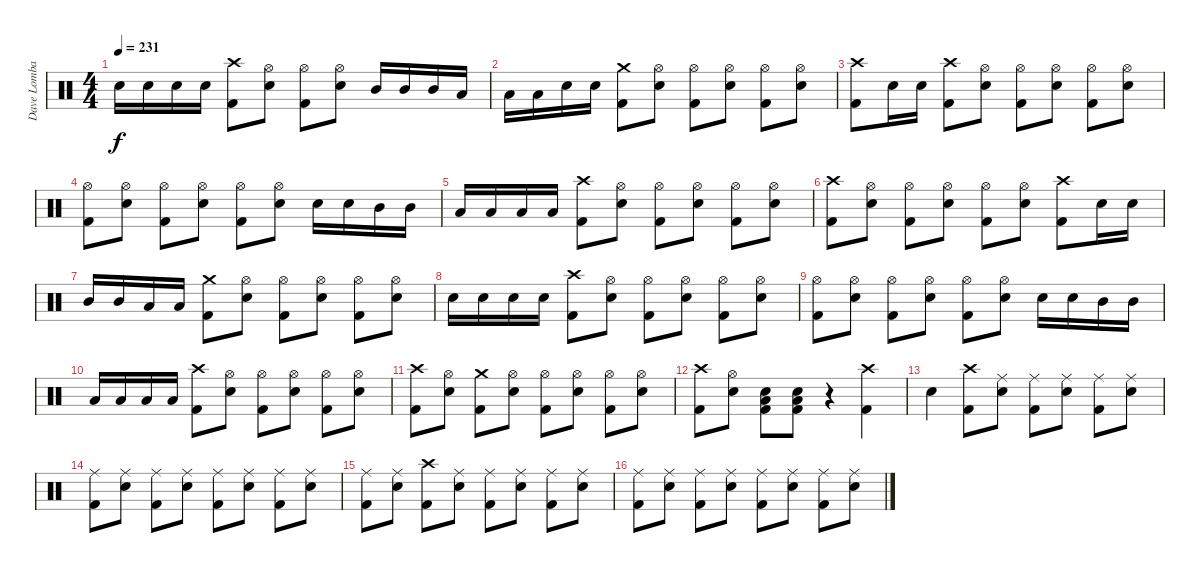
\track ("Dave Lombardo" "Dave Lomba") {instrument percussion}
\staff {score}
\articulation defaults
\ts (4 4)
\tempo 231
\clef neutral
\ks c "Electric Snare (hit)".16{dy f} "Electric Snare (hit)".16 "Electric Snare (hit)".16 "Electric Snare (hit)".16
("Crash high (hit)" "Kick (hit) 2").8 ("Hi-Hat (open)" "Electric Snare (hit)").8 ("Hi-Hat (open)" "Kick (hit) 2").8 ("Hi-Hat (open)" "Electric Snare (hit)").8 "Mid Tom (hit)".16 "Mid Tom (hit)".16 "Mid Tom (hit)".16 "Low Tom (hit)".16 |
"Low Tom (hit)".16 "Low Tom (hit)".16 "Electric Snare (hit)".16 "Electric Snare (hit)".16 ("Crash medium (hit)" "Kick (hit) 2").8 ("Hi-Hat (open)" "Electric Snare (hit)").8 ("Hi-Hat (open)" "Kick (hit) 2").8 ("Hi-Hat (open)" "Electric Snare (hit)").8 ("Hi-Hat (open)" "Kick (hit) 2").8 ("Hi-Hat (open)" "Electric Snare (hit)").8 |
("Crash high (hit)" "Kick (hit) 2").8 "Electric Snare (hit)".16 "Electric Snare (hit)".16 ("Crash high (hit)" "Kick (hit) 2").8 ("Hi-Hat (open)" "Electric Snare (hit)").8 ("Hi-Hat (open)" "Kick (hit) 2").8 ("Hi-Hat (open)" "Electric Snare (hit)").8 ("Hi-Hat (open)" "Kick (hit) 2").8 ("Hi-Hat (open)" "Electric Snare (hit)").8 |
("Hi-Hat (open)" "Kick (hit) 2").8 ("Hi-Hat (open)" "Electric Snare (hit)").8 ("Hi-Hat (open)" "Kick (hit) 2").8 ("Hi-Hat (open)" "Electric Snare (hit)").8 ("Hi-Hat (open)" "Kick (hit) 2").8 ("Hi-Hat (open)" "Electric Snare (hit)").8 "Electric Snare (hit)".16 "Electric Snare (hit)".16 "Mid Tom (hit)".16 "Mid Tom (hit)".16 |
"Low Tom (hit)".16 "Low Tom (hit)".16 "Low Tom (hit)".16 "Low Tom (hit)".16 ("Crash high (hit)" "Kick (hit) 2").8 ("Hi-Hat (open)" "Electric Snare (hit)").8 ("Hi-Hat (open)" "Kick (hit) 2").8 ("Hi-Hat (open)" "Electric Snare (hit)").8 ("Hi-Hat (open)" "Kick (hit) 2").8 ("Hi-Hat (open)" "Electric Snare (hit)").8 |
("Crash high (hit)" "Kick (hit) 2").8 ("Hi-Hat (open)" "Electric Snare (hit)").8 ("Hi-Hat (open)" "Kick (hit) 2").8 ("Hi-Hat (open)" "Electric Snare (hit)").8 ("Hi-Hat (open)" "Kick (hit) 2").8 ("Hi-Hat (open)" "Electric Snare (hit)").8 ("Crash high (hit)" "Kick (hit) 2").8 "Electric Snare (hit)".16 "Electric Snare (hit)".16 |
"Mid Tom (hit)".16 "Mid Tom (hit)".16 "Low Tom (hit)".16 "Low Tom (hit)".16 ("Crash medium (hit)" "Kick (hit) 2").8 ("Hi-Hat (open)" "Electric Snare (hit)").8 ("Hi-Hat (open)" "Kick (hit) 2").8 ("Hi-Hat (open)" "Electric Snare (hit)").8 ("Hi-Hat (open)" "Kick (hit) 2").8 ("Hi-Hat (open)" "Electric Snare (hit)").8 |
"Electric Snare (hit)".16 "Electric Snare (hit)".16 "Electric Snare (hit)".16 "Electric Snare (hit)".16 ("Crash high (hit)" "Kick (hit) 2").8 ("Hi-Hat (open)" "Electric Snare (hit)").8 ("Hi-Hat (open)" "Kick (hit) 2").8 ("Hi-Hat (open)" "Electric Snare (hit)").8 ("Hi-Hat (open)" "Kick (hit) 2").8 ("Hi-Hat (open)" "Electric Snare (hit)").8 |
("Hi-Hat (open)" "Kick (hit) 2").8 ("Hi-Hat (open)" "Electric Snare (hit)").8 ("Hi-Hat (open)" "Kick (hit) 2").8 ("Hi-Hat (open)" "Electric Snare (hit)").8 ("Hi-Hat (open)" "Kick (hit) 2").8 ("Hi-Hat (open)" "Electric Snare (hit)").8 "Electric Snare (hit)".16 "Electric Snare (hit)".16 "Mid Tom (hit)".16 "Mid Tom (hit)".16 |
"Low Tom (hit)".16 "Low Tom (hit)".16 "Low Tom (hit)".16 "Low Tom (hit)".16 ("Crash high (hit)" "Kick (hit) 2").8 ("Hi-Hat (open)" "Electric Snare (hit)").8 ("Hi-Hat (open)" "Kick (hit) 2").8 ("Hi-Hat (open)" "Electric Snare (hit)").8 ("Hi-Hat (open)" "Kick (hit) 2").8 ("Hi-Hat (open)" "Electric Snare (hit)").8 |
("Crash high (hit)" "Kick (hit) 2").8 ("Hi-Hat (open)" "Electric Snare (hit)").8 ("Crash medium (hit)" "Kick (hit) 2").8 ("Hi-Hat (open)" "Electric Snare (hit)").8 ("Hi-Hat (open)" "Kick (hit) 2").8 ("Hi-Hat (open)" "Electric Snare (hit)").8 ("Hi-Hat (open)" "Kick (hit) 2").8 ("Hi-Hat (open)" "Electric Snare (hit)").8 |
("Crash high (hit)" "Kick (hit) 2").8 ("Hi-Hat (open)" "Electric Snare (hit)").8 ("Kick (hit) 2" "Low Floor Tom (hit)" "Electric Snare (hit)").8 ("Kick (hit) 2" "Low Floor Tom (hit)" "Electric Snare (hit)").8 r.4 ("Crash high (hit)" "Kick (hit) 2").4 |
"Electric Snare (hit)".4 ("Crash high (hit)" "Kick (hit) 2").8 ("Ride (middle)" "Electric Snare (hit)").8 ("Ride (middle)" "Kick (hit) 2").8 ("Ride (middle)" "Electric Snare (hit)").8 ("Ride (middle)" "Kick (hit) 2").8 ("Ride (middle)" "Electric Snare (hit)").8 |
("Ride (middle)" "Kick (hit) 2").8 ("Ride (middle)" "Electric Snare (hit)").8 ("Ride (middle)" "Kick (hit) 2").8 ("Ride (middle)" "Electric Snare (hit)").8 ("Ride (middle)" "Kick (hit) 2").8 ("Ride (middle)" "Electric Snare (hit)").8 ("Ride (middle)" "Kick (hit) 2").8 ("Ride (middle)" "Electric Snare (hit)").8 |
("Ride (middle)" "Kick (hit) 2").8 ("Ride (middle)" "Electric Snare (hit)").8 ("Crash high (hit)" "Kick (hit) 2").8 ("Ride (middle)" "Electric Snare (hit)").8 ("Ride (middle)" "Kick (hit) 2").8 ("Ride (middle)" "Electric Snare (hit)").8 ("Ride (middle)" "Kick (hit) 2").8 ("Ride (middle)" "Electric Snare (hit)").8 |
("Ride (middle)" "Kick (hit) 2").8 ("Ride (middle)" "Electric Snare (hit)").8 ("Ride (middle)" "Kick (hit) 2").8 ("Ride (middle)" "Electric Snare (hit)").8 ("Ride (middle)" "Kick (hit) 2").8 ("Ride (middle)" "Electric Snare (hit)").8 ("Ride (middle)" "Kick (hit) 2").8 ("Ride (middle)" "Electric Snare (hit)").8
